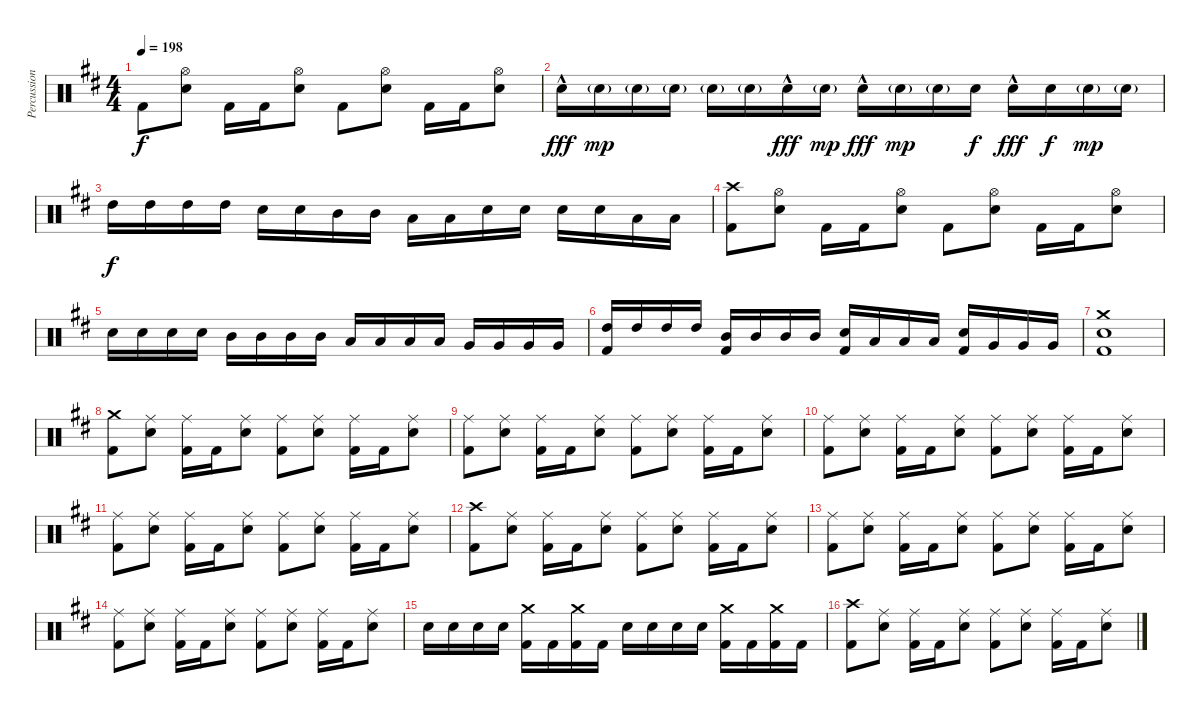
\track ("Percussion" "Percussion") {instrument percussion}
\staff {score}
\articulation defaults
\ts (4 4)
\tempo 198
\clef neutral
\ks bminor "Kick (hit) 2".8{dy f}
("Hi-Hat (open)" "Snare (hit) 2").8 "Kick (hit) 2".16 "Kick (hit) 2".16 ("Hi-Hat (open)" "Snare (hit) 2").8 "Kick (hit) 2".8 ("Hi-Hat (open)" "Snare (hit) 2").8 "Kick (hit) 2".16 "Kick (hit) 2".16 ("Hi-Hat (open)" "Snare (hit) 2").8 |
"Snare (hit) 2"{hac}.16{dy fff} "Snare (hit) 2"{g}.16{dy mp} "Snare (hit) 2"{g}.16 "Snare (hit) 2"{g}.16 "Snare (hit) 2"{g}.16 "Snare (hit) 2"{g}.16 "Snare (hit) 2"{hac}.16{dy fff} "Snare (hit) 2"{g}.16{dy mp} "Snare (hit) 2"{hac}.16{dy fff} "Snare (hit) 2"{g}.16{dy mp} "Snare (hit) 2"{g}.16 "Snare (hit) 2".16{dy f} "Snare (hit) 2"{hac}.16{dy fff} "Snare (hit) 2".16{dy f} "Snare (hit) 2"{g}.16{dy mp} "Snare (hit) 2"{g}.16 |
"High Tom (hit)".16{dy f} "High Tom (hit)".16 "High Tom (hit)".16 "High Tom (hit)".16 "Snare (hit) 2".16 "Snare (hit) 2".16 "Mid Tom (hit)".16 "Mid Tom (hit)".16 "Low Tom (hit)".16 "Low Tom (hit)".16 "Snare (hit) 2".16 "Snare (hit) 2".16 "Snare (hit) 2".16 "Snare (hit) 2".16 "Low Tom (hit)".16 "Low Tom (hit)".16 |
("Crash high (hit)" "Kick (hit) 2").8 ("Hi-Hat (open)" "Snare (hit) 2").8 "Kick (hit) 2".16 "Kick (hit) 2".16 ("Hi-Hat (open)" "Snare (hit) 2").8 "Kick (hit) 2".8 ("Hi-Hat (open)" "Snare (hit) 2").8 "Kick (hit) 2".16 "Kick (hit) 2".16 ("Hi-Hat (open)" "Snare (hit) 2").8 |
"Snare (hit) 2".16 "Snare (hit) 2".16 "Snare (hit) 2".16 "Snare (hit) 2".16 "Mid Tom (hit)".16 "Mid Tom (hit)".16 "Mid Tom (hit)".16 "Mid Tom (hit)".16 "Low Tom (hit)".16 "Low Tom (hit)".16 "Low Tom (hit)".16 "Low Tom (hit)".16 "Very Low Tom (hit)".16 "Very Low Tom (hit)".16 "Very Low Tom (hit)".16 "Very Low Tom (hit)".16 |
("High Tom (hit)" "Kick (hit) 2").16 "High Tom (hit)".16 "High Tom (hit)".16 "High Tom (hit)".16 ("Mid Tom (hit)" "Kick (hit) 2").16 "Mid Tom (hit)".16 "Mid Tom (hit)".16 "Mid Tom (hit)".16 ("Snare (hit) 2" "Kick (hit) 2").16 "Low Tom (hit)".16 "Low Tom (hit)".16 "Low Tom (hit)".16 ("Snare (hit) 2" "Kick (hit) 2").16 "Very Low Tom (hit)".16 "Very Low Tom (hit)".16 "Very Low Tom (hit)".16 |
("Crash medium (hit)" "Snare (hit) 2" "Kick (hit) 2").1 |
("Crash medium (hit)" "Kick (hit) 2").8 ("Ride (middle)" "Snare (hit) 2").8 ("Ride (middle)" "Kick (hit) 2").16 "Kick (hit) 2".16 ("Ride (middle)" "Snare (hit) 2").8 ("Ride (middle)" "Kick (hit) 2").8 ("Ride (middle)" "Snare (hit) 2").8 ("Ride (middle)" "Kick (hit) 2").16 "Kick (hit) 2".16 ("Ride (middle)" "Snare (hit) 2").8 |
("Ride (middle)" "Kick (hit) 2").8 ("Ride (middle)" "Snare (hit) 2").8 ("Ride (middle)" "Kick (hit) 2").16 "Kick (hit) 2".16 ("Ride (middle)" "Snare (hit) 2").8 ("Ride (middle)" "Kick (hit) 2").8 ("Ride (middle)" "Snare (hit) 2").8 ("Ride (middle)" "Kick (hit) 2").16 "Kick (hit) 2".16 ("Ride (middle)" "Snare (hit) 2").8 |
("Ride (middle)" "Kick (hit) 2").8 ("Ride (middle)" "Snare (hit) 2").8 ("Ride (middle)" "Kick (hit) 2").16 "Kick (hit) 2".16 ("Ride (middle)" "Snare (hit) 2").8 ("Ride (middle)" "Kick (hit) 2").8 ("Ride (middle)" "Snare (hit) 2").8 ("Ride (middle)" "Kick (hit) 2").16 "Kick (hit) 2".16 ("Ride (middle)" "Snare (hit) 2").8 |
("Ride (middle)" "Kick (hit) 2").8 ("Ride (middle)" "Snare (hit) 2").8 ("Ride (middle)" "Kick (hit) 2").16 "Kick (hit) 2".16 ("Ride (middle)" "Snare (hit) 2").8 ("Ride (middle)" "Kick (hit) 2").8 ("Ride (middle)" "Snare (hit) 2").8 ("Ride (middle)" "Kick (hit) 2").16 "Kick (hit) 2".16 ("Ride (middle)" "Snare (hit) 2").8 |
("Crash high (hit)" "Kick (hit) 2").8 ("Ride (middle)" "Snare (hit) 2").8 ("Ride (middle)" "Kick (hit) 2").16 "Kick (hit) 2".16 ("Ride (middle)" "Snare (hit) 2").8 ("Ride (middle)" "Kick (hit) 2").8 ("Ride (middle)" "Snare (hit) 2").8 ("Ride (middle)" "Kick (hit) 2").16 "Kick (hit) 2".16 ("Ride (middle)" "Snare (hit) 2").8 |
("Ride (middle)" "Kick (hit) 2").8 ("Ride (middle)" "Snare (hit) 2").8 ("Ride (middle)" "Kick (hit) 2").16 "Kick (hit) 2".16 ("Ride (middle)" "Snare (hit) 2").8 ("Ride (middle)" "Kick (hit) 2").8 ("Ride (middle)" "Snare (hit) 2").8 ("Ride (middle)" "Kick (hit) 2").16 "Kick (hit) 2".16 ("Ride (middle)" "Snare (hit) 2").8 |
("Ride (middle)" "Kick (hit) 2").8 ("Ride (middle)" "Snare (hit) 2").8 ("Ride (middle)" "Kick (hit) 2").16 "Kick (hit) 2".16 ("Ride (middle)" "Snare (hit) 2").8 ("Ride (middle)" "Kick (hit) 2").8 ("Ride (middle)" "Snare (hit) 2").8 ("Ride (middle)" "Kick (hit) 2").16 "Kick (hit) 2".16 ("Ride (middle)" "Snare (hit) 2").8 |
"Snare (hit) 2".16 "Snare (hit) 2".16 "Snare (hit) 2".16 "Snare (hit) 2".16 ("Crash medium (hit)" "Kick (hit) 2").16 "Kick (hit) 2".16 ("Crash medium (hit)" "Kick (hit) 2").16 "Kick (hit) 2".16 "Snare (hit) 2".16 "Snare (hit) 2".16 "Snare (hit) 2".16 "Snare (hit) 2".16 ("Crash medium (hit)" "Kick (hit) 2").16 "Kick (hit) 2".16 ("Crash medium (hit)" "Kick (hit) 2").16 "Kick (hit) 2".16 |
("Crash high (hit)" "Kick (hit) 2").8 ("Ride (middle)" "Snare (hit) 2").8 ("Ride (middle)" "Kick (hit) 2").16 "Kick (hit) 2".16 ("Ride (middle)" "Snare (hit) 2").8 ("Ride (middle)" "Kick (hit) 2").8 ("Ride (middle)" "Snare (hit) 2").8 ("Ride (middle)" "Kick (hit) 2").16 "Kick (hit) 2".16 ("Ride (middle)" "Snare (hit) 2").8
